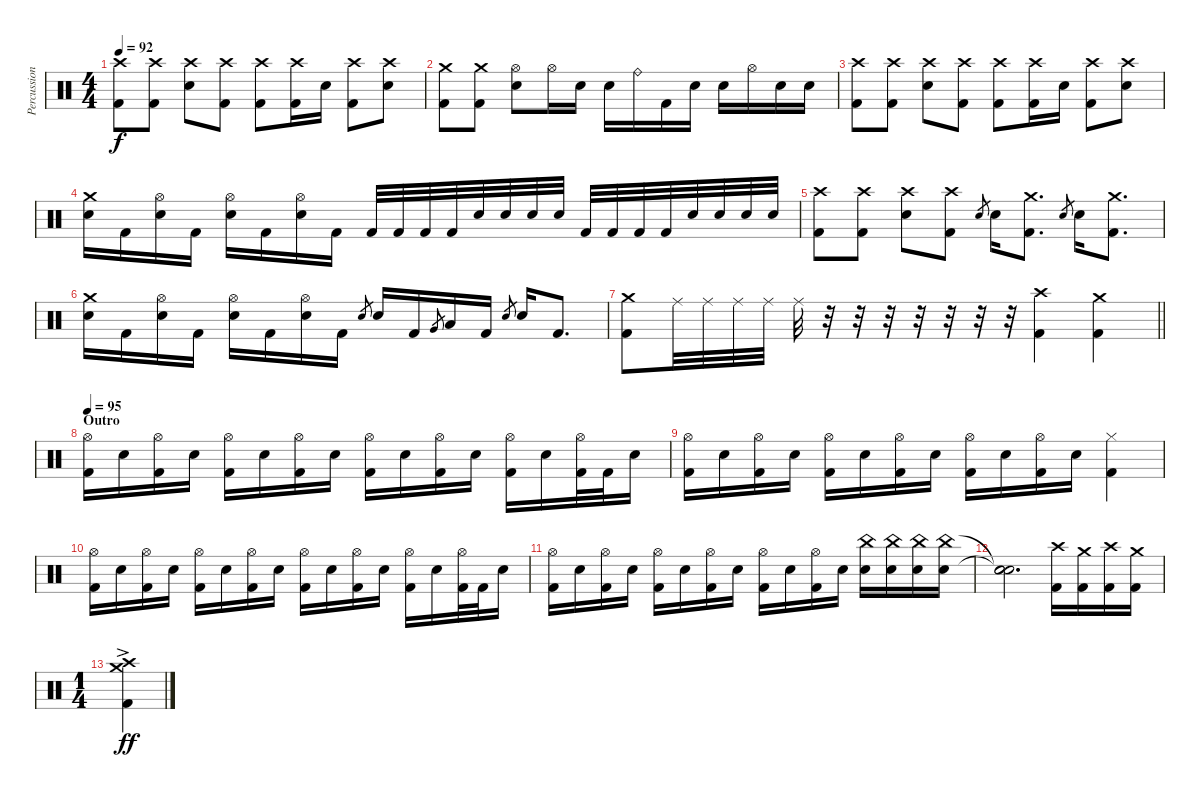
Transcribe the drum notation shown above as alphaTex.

\track ("Percussion" "Percussion") {instrument percussion}
\staff {score}
\articulation defaults
\ts (4 4)
\tempo 92
\clef neutral
\ks c
("Crash high (hit)" "Kick (hit) 2").8{dy f} ("Crash high (hit)" "Kick (hit) 2").8 ("Crash high (hit)" "Electric Snare (hit)").8 ("Crash high (hit)" "Kick (hit) 2").8 ("Crash high (hit)" "Kick (hit) 2").8 ("Crash high (hit)" "Kick (hit) 2").16 "Electric Snare (hit)".16 ("Crash high (hit)" "Kick (hit) 2").8 ("Crash high (hit)" "Electric Snare (hit)").8 |
("Crash medium (hit)" "Kick (hit) 2").8 ("Crash medium (hit)" "Kick (hit) 2").8 ("Hi-Hat (open)" "Electric Snare (hit)").8 "Hi-Hat (open)".16 "Electric Snare (hit)".16 "Electric Snare (hit)".16 "Ride (bell)".16 "Kick (hit) 2".16 "Electric Snare (hit)".16 "Electric Snare (hit)".16 "Hi-Hat (open)".16 "Electric Snare (hit)".16 "Electric Snare (hit)".16 |
("Crash high (hit)" "Kick (hit) 2").8 ("Crash high (hit)" "Kick (hit) 2").8 ("Crash high (hit)" "Electric Snare (hit)").8 ("Crash high (hit)" "Kick (hit) 2").8 ("Crash high (hit)" "Kick (hit) 2").8 ("Crash high (hit)" "Kick (hit) 2").16 "Electric Snare (hit)".16 ("Crash high (hit)" "Kick (hit) 2").8 ("Crash high (hit)" "Electric Snare (hit)").8 |
("Crash medium (hit)" "Electric Snare (hit)").16 "Kick (hit) 2".16 ("Hi-Hat (open)" "Electric Snare (hit)").16 "Kick (hit) 2".16 ("Hi-Hat (open)" "Electric Snare (hit)").16 "Kick (hit) 2".16 ("Hi-Hat (open)" "Electric Snare (hit)").16 "Kick (hit) 2".16 "Kick (hit) 2".32 "Kick (hit) 2".32 "Kick (hit) 2".32 "Kick (hit) 2".32 "Electric Snare (hit)".32 "Electric Snare (hit)".32 "Electric Snare (hit)".32 "Electric Snare (hit)".32 "Kick (hit) 2".32 "Kick (hit) 2".32 "Kick (hit) 2".32 "Kick (hit) 2".32 "Electric Snare (hit)".32 "Electric Snare (hit)".32 "Electric Snare (hit)".32 "Electric Snare (hit)".32 |
("Crash high (hit)" "Kick (hit) 2").8 ("Crash high (hit)" "Kick (hit) 2").8 ("Crash high (hit)" "Electric Snare (hit)").8 ("Crash high (hit)" "Kick (hit) 2").8 "Electric Snare (hit)".8{gr} "Electric Snare (hit)".16 ("Crash medium (hit)" "Kick (hit) 2").8{d} "Electric Snare (hit)".8{gr} "Electric Snare (hit)".16 ("Crash medium (hit)" "Kick (hit) 2").8{d} |
("Crash medium (hit)" "Electric Snare (hit)").16 "Kick (hit) 2".16 ("Hi-Hat (open)" "Electric Snare (hit)").16 "Kick (hit) 2".16 ("Hi-Hat (open)" "Electric Snare (hit)").16 "Kick (hit) 2".16 ("Hi-Hat (open)" "Electric Snare (hit)").16 "Kick (hit) 2".16 "Electric Snare (hit)".8{gr} "Electric Snare (hit)".16 "Kick (hit) 2".16 "Very Low Tom (hit)".8{gr} "Low Floor Tom (hit)".16 "Kick (hit) 2".16 "Electric Snare (hit)".8{gr} "Electric Snare (hit)".16 "Kick (hit) 2".8{d} |
\barLineRight lightlight
("Crash medium (hit)" "Kick (hit) 2").8 "Ride (middle)".32 "Ride (middle)".32 "Ride (middle)".32 "Ride (middle)".32 "Ride (middle)".32 r.32 r.32 r.32 r.32 r.32 r.32 r.32 ("Crash high (hit)" "Kick (hit) 2").4 ("Crash medium (hit)" "Kick (hit) 2").4 |
\section ("" "Outro")
\tempo 95
("Hi-Hat (open)" "Kick (hit) 2").16 "Electric Snare (hit)".16 ("Hi-Hat (open)" "Kick (hit) 2").16 "Electric Snare (hit)".16 ("Hi-Hat (open)" "Kick (hit) 2").16 "Electric Snare (hit)".16 ("Hi-Hat (open)" "Kick (hit) 2").16 "Electric Snare (hit)".16 ("Hi-Hat (open)" "Kick (hit) 2").16 "Electric Snare (hit)".16 ("Hi-Hat (open)" "Kick (hit) 2").16 "Electric Snare (hit)".16 ("Hi-Hat (open)" "Kick (hit) 2").16 "Electric Snare (hit)".16 ("Hi-Hat (open)" "Kick (hit) 2").32 "Kick (hit) 2".32 "Electric Snare (hit)".16 |
("Hi-Hat (open)" "Kick (hit) 2").16 "Electric Snare (hit)".16 ("Hi-Hat (open)" "Kick (hit) 2").16 "Electric Snare (hit)".16 ("Hi-Hat (open)" "Kick (hit) 2").16 "Electric Snare (hit)".16 ("Hi-Hat (open)" "Kick (hit) 2").16 "Electric Snare (hit)".16 ("Hi-Hat (open)" "Kick (hit) 2").16 "Electric Snare (hit)".16 ("Hi-Hat (open)" "Kick (hit) 2").16 "Electric Snare (hit)".16 ("Hi-Hat (closed)" "Kick (hit) 2").4 |
("Hi-Hat (open)" "Kick (hit) 2").16 "Electric Snare (hit)".16 ("Hi-Hat (open)" "Kick (hit) 2").16 "Electric Snare (hit)".16 ("Hi-Hat (open)" "Kick (hit) 2").16 "Electric Snare (hit)".16 ("Hi-Hat (open)" "Kick (hit) 2").16 "Electric Snare (hit)".16 ("Hi-Hat (open)" "Kick (hit) 2").16 "Electric Snare (hit)".16 ("Hi-Hat (open)" "Kick (hit) 2").16 "Electric Snare (hit)".16 ("Hi-Hat (open)" "Kick (hit) 2").16 "Electric Snare (hit)".16 ("Hi-Hat (open)" "Kick (hit) 2").32 "Kick (hit) 2".32 "Electric Snare (hit)".16 |
("Hi-Hat (open)" "Kick (hit) 2").16 "Electric Snare (hit)".16 ("Hi-Hat (open)" "Kick (hit) 2").16 "Electric Snare (hit)".16 ("Hi-Hat (open)" "Kick (hit) 2").16 "Electric Snare (hit)".16 ("Hi-Hat (open)" "Kick (hit) 2").16 "Electric Snare (hit)".16 ("Hi-Hat (open)" "Kick (hit) 2").16 "Electric Snare (hit)".16 ("Hi-Hat (open)" "Kick (hit) 2").16 "Electric Snare (hit)".16 ("China (hit)" "Electric Snare (hit)").16 ("China (hit)" "Electric Snare (hit)").16 ("China (hit)" "Electric Snare (hit)").16 ("China (hit)" "Electric Snare (hit)").16 |
("Snare (hit)"{t} "Snare (hit)"{t} "Snare (hit)").2{d} ("Crash high (hit)" "Kick (hit) 2").16 ("Crash medium (hit)" "Kick (hit) 2").16 ("Crash high (hit)" "Kick (hit) 2").16 ("Crash medium (hit)" "Kick (hit) 2").16 |
\ts (1 4)
("Crash high (hit)" "Crash medium (hit)"{ac} "Kick (hit) 2").4{dy ff}
